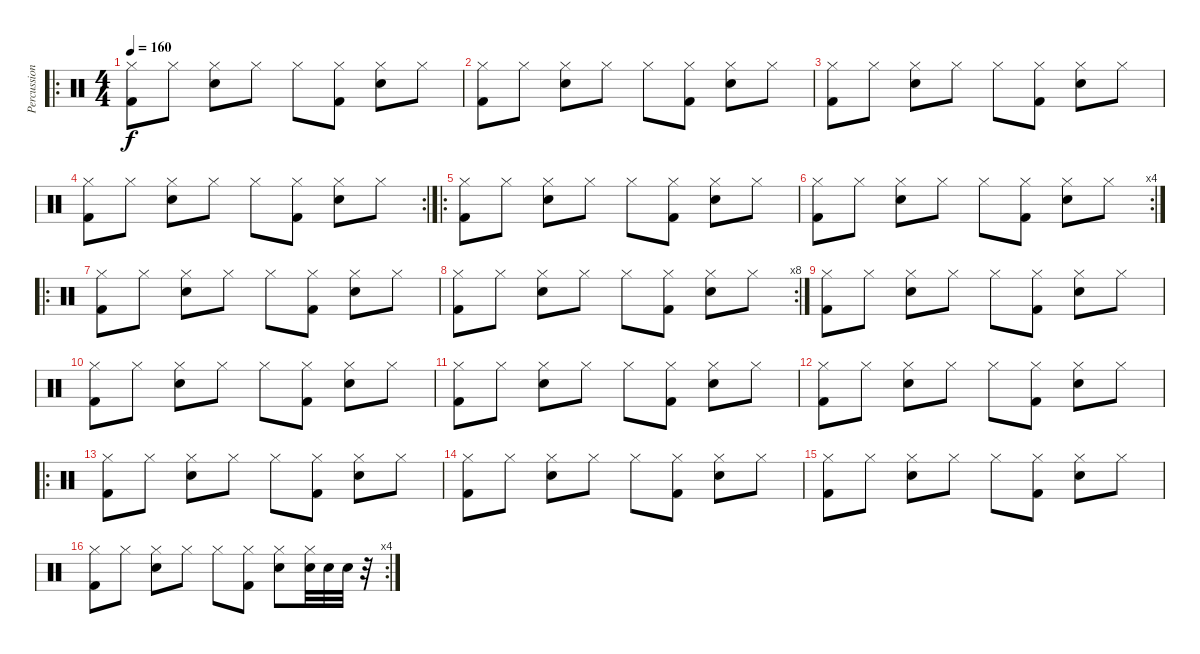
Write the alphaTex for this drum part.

\track ("Percussions" "Percussion") {instrument percussion}
\staff {score}
\articulation defaults
\ro
\ts (4 4)
\tempo 160
\clef neutral
\ks c
("Hi-Hat (closed)" "Kick (hit) 2").8{dy f} "Hi-Hat (closed)".8 ("Hi-Hat (closed)" "Snare (hit) 2").8 "Hi-Hat (closed)".8 "Hi-Hat (closed)".8 ("Hi-Hat (closed)" "Kick (hit) 2").8 ("Hi-Hat (closed)" "Snare (hit) 2").8 "Hi-Hat (closed)".8 |
("Hi-Hat (closed)" "Kick (hit) 2").8 "Hi-Hat (closed)".8 ("Hi-Hat (closed)" "Snare (hit) 2").8 "Hi-Hat (closed)".8 "Hi-Hat (closed)".8 ("Hi-Hat (closed)" "Kick (hit) 2").8 ("Hi-Hat (closed)" "Snare (hit) 2").8 "Hi-Hat (closed)".8 |
("Hi-Hat (closed)" "Kick (hit) 2").8 "Hi-Hat (closed)".8 ("Hi-Hat (closed)" "Snare (hit) 2").8 "Hi-Hat (closed)".8 "Hi-Hat (closed)".8 ("Hi-Hat (closed)" "Kick (hit) 2").8 ("Hi-Hat (closed)" "Snare (hit) 2").8 "Hi-Hat (closed)".8 |
\rc 2
("Hi-Hat (closed)" "Kick (hit) 2").8 "Hi-Hat (closed)".8 ("Hi-Hat (closed)" "Snare (hit) 2").8 "Hi-Hat (closed)".8 "Hi-Hat (closed)".8 ("Hi-Hat (closed)" "Kick (hit) 2").8 ("Hi-Hat (closed)" "Snare (hit) 2").8 "Hi-Hat (closed)".8 |
\ro
("Hi-Hat (closed)" "Kick (hit) 2").8 "Hi-Hat (closed)".8 ("Hi-Hat (closed)" "Snare (hit) 2").8 "Hi-Hat (closed)".8 "Hi-Hat (closed)".8 ("Hi-Hat (closed)" "Kick (hit) 2").8 ("Hi-Hat (closed)" "Snare (hit) 2").8 "Hi-Hat (closed)".8 |
\rc 4
("Hi-Hat (closed)" "Kick (hit) 2").8 "Hi-Hat (closed)".8 ("Hi-Hat (closed)" "Snare (hit) 2").8 "Hi-Hat (closed)".8 "Hi-Hat (closed)".8 ("Hi-Hat (closed)" "Kick (hit) 2").8 ("Hi-Hat (closed)" "Snare (hit) 2").8 "Hi-Hat (closed)".8 |
\ro
("Hi-Hat (closed)" "Kick (hit) 2").8 "Hi-Hat (closed)".8 ("Hi-Hat (closed)" "Snare (hit) 2").8 "Hi-Hat (closed)".8 "Hi-Hat (closed)".8 ("Hi-Hat (closed)" "Kick (hit) 2").8 ("Hi-Hat (closed)" "Snare (hit) 2").8 "Hi-Hat (closed)".8 |
\rc 8
("Hi-Hat (closed)" "Kick (hit) 2").8 "Hi-Hat (closed)".8 ("Hi-Hat (closed)" "Snare (hit) 2").8 "Hi-Hat (closed)".8 "Hi-Hat (closed)".8 ("Hi-Hat (closed)" "Kick (hit) 2").8 ("Hi-Hat (closed)" "Snare (hit) 2").8 "Hi-Hat (closed)".8 |
("Hi-Hat (closed)" "Kick (hit) 2").8 "Hi-Hat (closed)".8 ("Hi-Hat (closed)" "Snare (hit) 2").8 "Hi-Hat (closed)".8 "Hi-Hat (closed)".8 ("Hi-Hat (closed)" "Kick (hit) 2").8 ("Hi-Hat (closed)" "Snare (hit) 2").8 "Hi-Hat (closed)".8 |
("Hi-Hat (closed)" "Kick (hit) 2").8 "Hi-Hat (closed)".8 ("Hi-Hat (closed)" "Snare (hit) 2").8 "Hi-Hat (closed)".8 "Hi-Hat (closed)".8 ("Hi-Hat (closed)" "Kick (hit) 2").8 ("Hi-Hat (closed)" "Snare (hit) 2").8 "Hi-Hat (closed)".8 |
("Hi-Hat (closed)" "Kick (hit) 2").8 "Hi-Hat (closed)".8 ("Hi-Hat (closed)" "Snare (hit) 2").8 "Hi-Hat (closed)".8 "Hi-Hat (closed)".8 ("Hi-Hat (closed)" "Kick (hit) 2").8 ("Hi-Hat (closed)" "Snare (hit) 2").8 "Hi-Hat (closed)".8 |
("Hi-Hat (closed)" "Kick (hit) 2").8 "Hi-Hat (closed)".8 ("Hi-Hat (closed)" "Snare (hit) 2").8 "Hi-Hat (closed)".8 "Hi-Hat (closed)".8 ("Hi-Hat (closed)" "Kick (hit) 2").8 ("Hi-Hat (closed)" "Snare (hit) 2").8 "Hi-Hat (closed)".8 |
\ro
("Hi-Hat (closed)" "Kick (hit) 2").8 "Hi-Hat (closed)".8 ("Hi-Hat (closed)" "Snare (hit) 2").8 "Hi-Hat (closed)".8 "Hi-Hat (closed)".8 ("Hi-Hat (closed)" "Kick (hit) 2").8 ("Hi-Hat (closed)" "Snare (hit) 2").8 "Hi-Hat (closed)".8 |
("Hi-Hat (closed)" "Kick (hit) 2").8 "Hi-Hat (closed)".8 ("Hi-Hat (closed)" "Snare (hit) 2").8 "Hi-Hat (closed)".8 "Hi-Hat (closed)".8 ("Hi-Hat (closed)" "Kick (hit) 2").8 ("Hi-Hat (closed)" "Snare (hit) 2").8 "Hi-Hat (closed)".8 |
("Hi-Hat (closed)" "Kick (hit) 2").8 "Hi-Hat (closed)".8 ("Hi-Hat (closed)" "Snare (hit) 2").8 "Hi-Hat (closed)".8 "Hi-Hat (closed)".8 ("Hi-Hat (closed)" "Kick (hit) 2").8 ("Hi-Hat (closed)" "Snare (hit) 2").8 "Hi-Hat (closed)".8 |
\rc 4
("Hi-Hat (closed)" "Kick (hit) 2").8 "Hi-Hat (closed)".8 ("Hi-Hat (closed)" "Snare (hit) 2").8 "Hi-Hat (closed)".8 "Hi-Hat (closed)".8 ("Hi-Hat (closed)" "Kick (hit) 2").8 ("Hi-Hat (closed)" "Snare (hit) 2").8 ("Hi-Hat (closed)" "Snare (hit) 2").32 "Snare (hit) 2".32 "Snare (hit) 2".32 r.32
